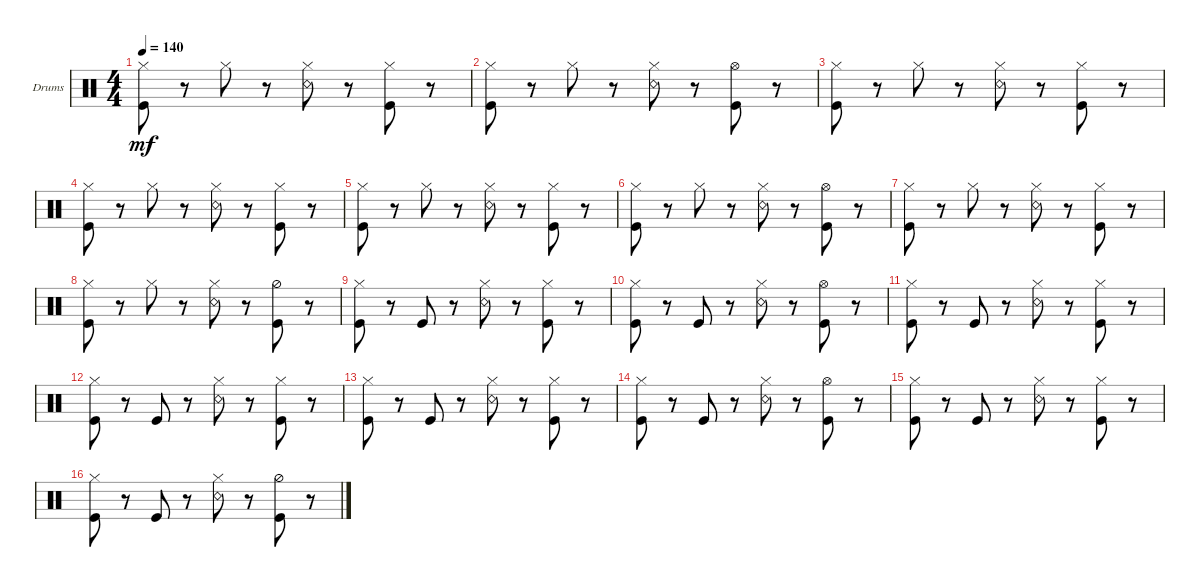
\defaultSystemsLayout 4
\bracketExtendMode groupsimilarinstruments
\firstSystemTrackNameOrientation horizontal
\otherSystemsTrackNameOrientation horizontal
\track ("Drumkit" "Drums") {instrument percussion}
\staff {score}
\articulation defaults
\ts (4 4)
\tempo 140
\clef neutral
\ks c
("Kick (hit)" "Hi-Hat (closed)").8{dy mf} r.8 "Hi-Hat (closed)".8 r.8 ("Hi-Hat (closed)" "Snare (rim shot)").8 r.8 ("Hi-Hat (closed)" "Kick (hit)").8 r.8 |
("Hi-Hat (closed)" "Kick (hit)").8 r.8 "Hi-Hat (closed)".8 r.8 ("Hi-Hat (closed)" "Snare (rim shot)").8 r.8 ("Hi-Hat (open)" "Kick (hit)").8 r.8 |
("Kick (hit)" "Hi-Hat (closed)").8 r.8 "Hi-Hat (closed)".8 r.8 ("Hi-Hat (closed)" "Snare (rim shot)").8 r.8 ("Hi-Hat (closed)" "Kick (hit)").8 r.8 |
("Hi-Hat (closed)" "Kick (hit)").8 r.8 "Hi-Hat (closed)".8 r.8 ("Hi-Hat (closed)" "Snare (rim shot)").8 r.8 ("Hi-Hat (closed)" "Kick (hit)").8 r.8 |
("Kick (hit)" "Hi-Hat (closed)").8 r.8 "Hi-Hat (closed)".8 r.8 ("Hi-Hat (closed)" "Snare (rim shot)").8 r.8 ("Hi-Hat (closed)" "Kick (hit)").8 r.8 |
("Hi-Hat (closed)" "Kick (hit)").8 r.8 "Hi-Hat (closed)".8 r.8 ("Hi-Hat (closed)" "Snare (rim shot)").8 r.8 ("Hi-Hat (open)" "Kick (hit)").8 r.8 |
("Kick (hit)" "Hi-Hat (closed)").8 r.8 "Hi-Hat (closed)".8 r.8 ("Hi-Hat (closed)" "Snare (rim shot)").8 r.8 ("Hi-Hat (closed)" "Kick (hit)").8 r.8 |
("Hi-Hat (closed)" "Kick (hit)").8 r.8 "Hi-Hat (closed)".8 r.8 ("Hi-Hat (closed)" "Snare (rim shot)").8 r.8 ("Hi-Hat (half)" "Kick (hit)").8 r.8 |
("Kick (hit)" "Hi-Hat (closed)").8 r.8 "Kick (hit)".8 r.8 ("Hi-Hat (closed)" "Snare (rim shot)").8 r.8 ("Hi-Hat (closed)" "Kick (hit)").8 r.8 |
("Hi-Hat (closed)" "Kick (hit)").8 r.8 "Kick (hit)".8 r.8 ("Hi-Hat (closed)" "Snare (rim shot)").8 r.8 ("Hi-Hat (open)" "Kick (hit)").8 r.8 |
("Kick (hit)" "Hi-Hat (closed)").8 r.8 "Kick (hit)".8 r.8 ("Hi-Hat (closed)" "Snare (rim shot)").8 r.8 ("Hi-Hat (closed)" "Kick (hit)").8 r.8 |
("Hi-Hat (closed)" "Kick (hit)").8 r.8 "Kick (hit)".8 r.8 ("Hi-Hat (closed)" "Snare (rim shot)").8 r.8 ("Hi-Hat (closed)" "Kick (hit)").8 r.8 |
("Kick (hit)" "Hi-Hat (closed)").8 r.8 "Kick (hit)".8 r.8 ("Hi-Hat (closed)" "Snare (rim shot)").8 r.8 ("Hi-Hat (closed)" "Kick (hit)").8 r.8 |
("Hi-Hat (closed)" "Kick (hit)").8 r.8 "Kick (hit)".8 r.8 ("Hi-Hat (closed)" "Snare (rim shot)").8 r.8 ("Hi-Hat (open)" "Kick (hit)").8 r.8 |
("Kick (hit)" "Hi-Hat (closed)").8 r.8 "Kick (hit)".8 r.8 ("Hi-Hat (closed)" "Snare (rim shot)").8 r.8 ("Hi-Hat (closed)" "Kick (hit)").8 r.8 |
("Hi-Hat (closed)" "Kick (hit)").8 r.8 "Kick (hit)".8 r.8 ("Hi-Hat (closed)" "Snare (rim shot)").8 r.8 ("Hi-Hat (half)" "Kick (hit)").8 r.8
